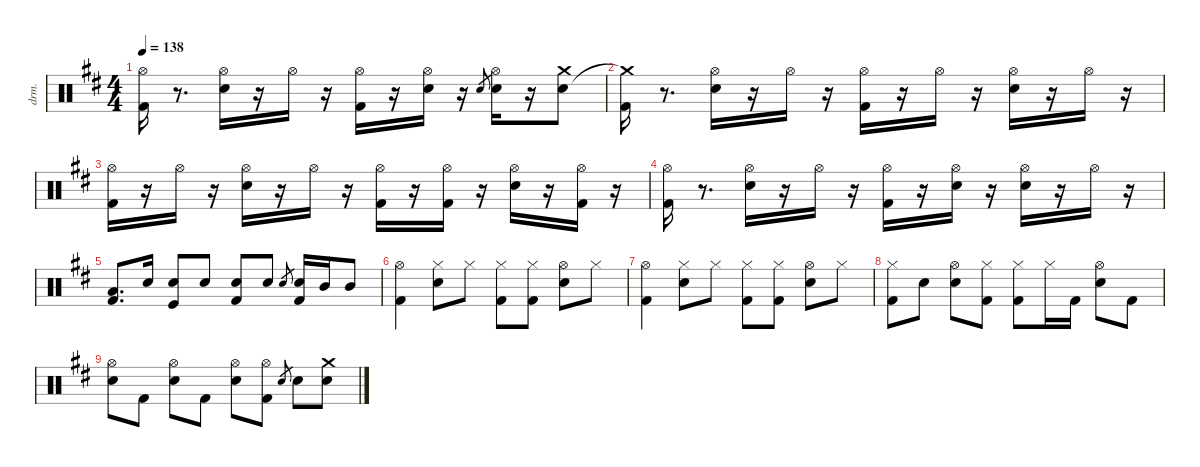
\hideDynamics
\bracketExtendMode groupsimilarinstruments
\otherSystemsTrackNameOrientation horizontal
\track ("Drumkit" "drm.") {instrument percussion}
\staff {score}
\articulation defaults
\ts (4 4)
\tempo 138
\clef neutral
\ks d
("Kick (hit) 2"{acc forcenatural} "Hi-Hat (open)"{acc #}).16{dy f} r.8{d} ("Snare (hit) 2"{acc forcenatural} "Hi-Hat (open)"{acc #}).16 r.16 "Hi-Hat (open)"{acc #}.16{dy p} r.16 ("Kick (hit) 2"{acc forcenatural} "Hi-Hat (open)"{acc #}).16{dy f} r.16 ("Snare (hit) 2"{acc forcenatural} "Hi-Hat (open)"{acc #}).16 r.16 "Snare (hit) 2"{acc forcenatural}.8{gr dy p} ("Snare (hit) 2"{acc forcenatural} "Hi-Hat (open)"{acc #}).16{dy f} r.16 ("Crash medium (hit)"{acc forcenatural} "Snare (hit) 2"{acc forcenatural}).8{dy p} |
("Kick (hit) 2"{acc forcenatural} "Crash medium (hit)"{t acc forcenatural}).16{dy f} r.8{d} ("Snare (hit) 2"{acc forcenatural} "Hi-Hat (open)"{acc #}).16 r.16 "Hi-Hat (open)"{acc #}.16{dy p} r.16 ("Kick (hit) 2"{acc forcenatural} "Hi-Hat (open)"{acc #}).16{dy f} r.16 "Hi-Hat (open)"{acc #}.16{dy p} r.16 ("Snare (hit) 2"{acc forcenatural} "Hi-Hat (open)"{acc #}).16{dy f} r.16 "Hi-Hat (open)"{acc #}.16{dy p} r.16 |
("Kick (hit) 2"{acc forcenatural} "Hi-Hat (open)"{acc #}).16{dy fff} r.16 "Hi-Hat (open)"{acc #}.16{dy p} r.16 ("Snare (hit) 2"{acc forcenatural} "Hi-Hat (open)"{acc #}).16{dy f} r.16 "Hi-Hat (open)"{acc #}.16{dy p} r.16 ("Kick (hit) 2"{acc forcenatural} "Hi-Hat (open)"{acc #}).16{dy ff} r.16 ("Kick (hit) 2"{acc forcenatural} "Hi-Hat (open)"{acc #}).16 r.16 ("Snare (hit) 2"{acc forcenatural} "Hi-Hat (open)"{acc #}).16{dy mp} r.16 ("Kick (hit) 2"{acc forcenatural} "Hi-Hat (open)"{acc #}).16{dy f} r.16 |
("Kick (hit) 2"{acc forcenatural} "Hi-Hat (open)"{acc #}).16 r.8{d} ("Snare (hit) 2"{acc forcenatural} "Hi-Hat (open)"{acc #}).16 r.16 "Hi-Hat (open)"{acc #}.16{dy p} r.16 ("Kick (hit) 2"{acc forcenatural} "Hi-Hat (open)"{acc #}).16{dy f} r.16 ("Snare (hit) 2"{acc forcenatural} "Hi-Hat (open)"{acc #}).16 r.16 ("Snare (hit) 2"{acc forcenatural} "Hi-Hat (open)"{acc #}).16 r.16 "Hi-Hat (open)"{acc #}.16{dy p} r.16 |
("Kick (hit) 2"{acc forcenatural} "Low Tom (hit)"{acc forcenatural}).8{d dy ff} "Snare (hit) 2"{acc forcenatural}.16 ("Snare (hit) 2"{acc forcenatural} "Kick (hit)"{acc forcenatural}).8 "Snare (hit) 2"{acc forcenatural}.8 ("Snare (hit) 2"{acc forcenatural} "Kick (hit) 2"{acc forcenatural}).8 "Snare (hit) 2"{acc forcenatural}.8 "Snare (hit) 2"{acc forcenatural}.8{gr} ("Snare (hit) 2"{acc forcenatural} "Kick (hit) 2"{acc forcenatural}).16 "Mid Tom (hit)"{acc forcenatural}.16 "Mid Tom (hit)"{acc forcenatural}.8 |
("Hi-Hat (open)"{acc forcenatural} "Kick (hit) 2"{acc forcenatural}).4 ("Snare (hit) 2"{acc forcenatural} "Hi-Hat (closed)"{acc forcenatural}).8 "Hi-Hat (closed)"{acc forcenatural}.8 ("Hi-Hat (closed)"{acc forcenatural} "Kick (hit) 2"{acc forcenatural}).8 ("Hi-Hat (closed)"{acc forcenatural} "Kick (hit) 2"{acc forcenatural}).8 ("Hi-Hat (open)"{acc forcenatural} "Snare (hit) 2"{acc forcenatural}).8 "Hi-Hat (closed)"{acc forcenatural}.8 |
("Hi-Hat (open)"{acc forcenatural} "Kick (hit) 2"{acc forcenatural}).4 ("Snare (hit) 2"{acc forcenatural} "Hi-Hat (closed)"{acc forcenatural}).8 "Hi-Hat (closed)"{acc forcenatural}.8 ("Hi-Hat (closed)"{acc forcenatural} "Kick (hit) 2"{acc forcenatural}).8 ("Hi-Hat (closed)"{acc forcenatural} "Kick (hit) 2"{acc forcenatural}).8 ("Hi-Hat (open)"{acc forcenatural} "Snare (hit) 2"{acc forcenatural}).8 "Hi-Hat (closed)"{acc forcenatural}.8 |
("Kick (hit) 2"{acc forcenatural} "Hi-Hat (closed)"{acc forcenatural}).8 "Snare (hit) 2"{acc forcenatural}.8 ("Snare (hit) 2"{acc forcenatural} "Hi-Hat (open)"{acc forcenatural}).8 ("Kick (hit) 2"{acc forcenatural} "Hi-Hat (closed)"{acc forcenatural}).8 ("Kick (hit) 2"{acc forcenatural} "Hi-Hat (closed)"{acc forcenatural}).8 "Hi-Hat (closed)"{acc forcenatural}.16 "Kick (hit) 2"{acc forcenatural}.16 ("Snare (hit) 2"{acc forcenatural} "Hi-Hat (open)"{acc forcenatural}).8 "Kick (hit) 2"{acc forcenatural}.8 |
("Snare (hit) 2"{acc forcenatural} "Hi-Hat (open)"{acc forcenatural}).8 "Kick (hit) 2"{acc forcenatural}.8 ("Snare (hit) 2"{acc forcenatural} "Hi-Hat (open)"{acc forcenatural}).8 "Kick (hit) 2"{acc forcenatural}.8 ("Snare (hit) 2"{acc forcenatural} "Hi-Hat (open)"{acc forcenatural}).8 ("Kick (hit) 2"{acc forcenatural} "Hi-Hat (open)"{acc forcenatural}).8 "Snare (hit) 2"{acc forcenatural}.8{gr} "Snare (hit) 2"{acc forcenatural}.8 ("Snare (hit) 2"{acc forcenatural} "Crash medium (hit)"{acc forcenatural}).8
